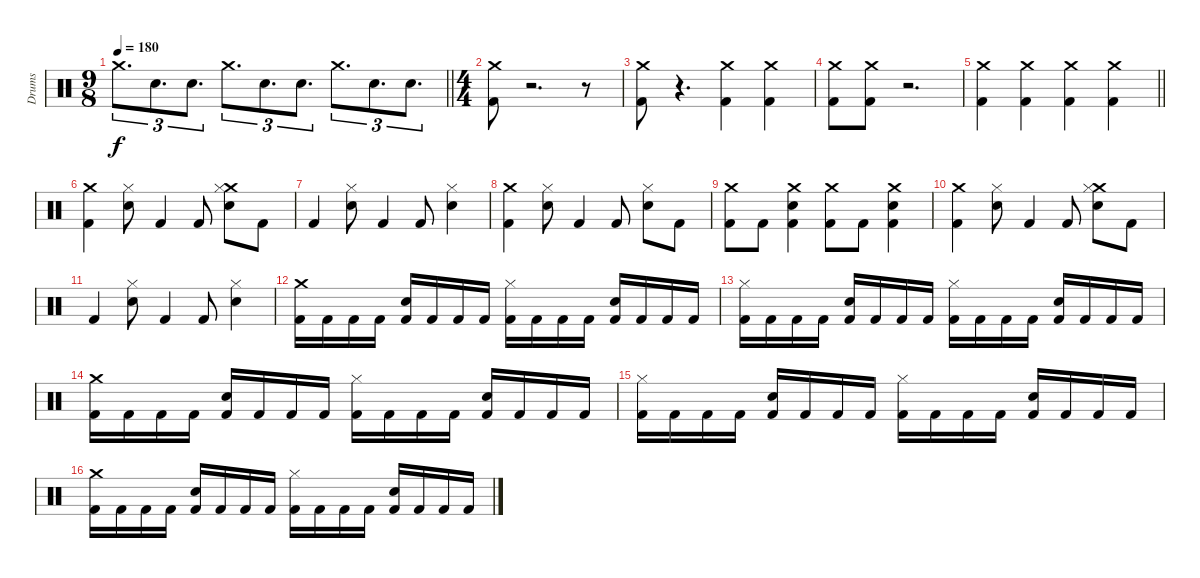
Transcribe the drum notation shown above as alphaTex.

\track ("Drums" "Drums") {instrument percussion}
\staff {score}
\articulation defaults
\ts (9 8)
\tempo 180
\clef neutral
\barLineRight lightlight
\ks c "Crash medium (hit)".8{d tu (3 2) dy f} "Snare (hit) 2".8{d tu (3 2)} "Snare (hit) 2".8{d tu (3 2)} "Crash medium (hit)".8{d tu (3 2)} "Snare (hit) 2".8{d tu (3 2)} "Snare (hit) 2".8{d tu (3 2)} "Crash medium (hit)".8{d tu (3 2)} "Snare (hit) 2".8{d tu (3 2)} "Snare (hit) 2".8{d tu (3 2)}
|
\ts (4 4)
("Crash medium (hit)" "Kick (hit) 2").8 r.2{d} r.8 |
("Crash medium (hit)" "Kick (hit) 2").8 r.4{d} ("Crash medium (hit)" "Kick (hit) 2").4 ("Crash medium (hit)" "Kick (hit) 2").4 |
("Crash medium (hit)" "Kick (hit) 2").8 ("Crash medium (hit)" "Kick (hit) 2").8 r.2{d} |
\barLineRight lightlight
("Crash medium (hit)" "Kick (hit) 2").4 ("Crash medium (hit)" "Kick (hit) 2").4 ("Crash medium (hit)" "Kick (hit) 2").4 ("Crash medium (hit)" "Kick (hit) 2").4 |
("Crash medium (hit)" "Kick (hit) 2").4 ("Hi-Hat (closed)" "Snare (hit) 2").8 "Kick (hit) 2".4 "Kick (hit) 2".8 ("Crash medium (hit)" "Hi-Hat (closed)" "Snare (hit) 2").8 "Kick (hit) 2".8 |
"Kick (hit) 2".4 ("Hi-Hat (closed)" "Snare (hit) 2").8 "Kick (hit) 2".4 "Kick (hit) 2".8 ("Hi-Hat (closed)" "Snare (hit) 2").4 |
("Crash medium (hit)" "Kick (hit) 2").4 ("Hi-Hat (closed)" "Snare (hit) 2").8 "Kick (hit) 2".4 "Kick (hit) 2".8 ("Hi-Hat (closed)" "Snare (hit) 2").8 "Kick (hit) 2".8 |
("Crash medium (hit)" "Kick (hit) 2").8 "Kick (hit) 2".8 ("Crash medium (hit)" "Snare (hit) 2" "Kick (hit) 2").4 ("Crash medium (hit)" "Kick (hit) 2").8 "Kick (hit) 2".8 ("Crash medium (hit)" "Snare (hit) 2" "Kick (hit) 2").4 |
("Crash medium (hit)" "Kick (hit) 2").4 ("Hi-Hat (closed)" "Snare (hit) 2").8 "Kick (hit) 2".4 "Kick (hit) 2".8 ("Crash medium (hit)" "Hi-Hat (closed)" "Snare (hit) 2").8 "Kick (hit) 2".8 |
"Kick (hit) 2".4 ("Hi-Hat (closed)" "Snare (hit) 2").8 "Kick (hit) 2".4 "Kick (hit) 2".8 ("Hi-Hat (closed)" "Snare (hit) 2").4 |
("Crash medium (hit)" "Kick (hit) 2").16 "Kick (hit) 2".16 "Kick (hit) 2".16 "Kick (hit) 2".16 ("Snare (hit) 2" "Kick (hit) 2").16 "Kick (hit) 2".16 "Kick (hit) 2".16 "Kick (hit) 2".16 ("Hi-Hat (closed)" "Kick (hit) 2").16 "Kick (hit) 2".16 "Kick (hit) 2".16 "Kick (hit) 2".16 ("Snare (hit) 2" "Kick (hit) 2").16 "Kick (hit) 2".16 "Kick (hit) 2".16 "Kick (hit) 2".16 |
("Hi-Hat (closed)" "Kick (hit) 2").16 "Kick (hit) 2".16 "Kick (hit) 2".16 "Kick (hit) 2".16 ("Snare (hit) 2" "Kick (hit) 2").16 "Kick (hit) 2".16 "Kick (hit) 2".16 "Kick (hit) 2".16 ("Hi-Hat (closed)" "Kick (hit) 2").16 "Kick (hit) 2".16 "Kick (hit) 2".16 "Kick (hit) 2".16 ("Snare (hit) 2" "Kick (hit) 2").16 "Kick (hit) 2".16 "Kick (hit) 2".16 "Kick (hit) 2".16 |
("Crash medium (hit)" "Kick (hit) 2").16 "Kick (hit) 2".16 "Kick (hit) 2".16 "Kick (hit) 2".16 ("Snare (hit) 2" "Kick (hit) 2").16 "Kick (hit) 2".16 "Kick (hit) 2".16 "Kick (hit) 2".16 ("Hi-Hat (closed)" "Kick (hit) 2").16 "Kick (hit) 2".16 "Kick (hit) 2".16 "Kick (hit) 2".16 ("Snare (hit) 2" "Kick (hit) 2").16 "Kick (hit) 2".16 "Kick (hit) 2".16 "Kick (hit) 2".16 |
("Hi-Hat (closed)" "Kick (hit) 2").16 "Kick (hit) 2".16 "Kick (hit) 2".16 "Kick (hit) 2".16 ("Snare (hit) 2" "Kick (hit) 2").16 "Kick (hit) 2".16 "Kick (hit) 2".16 "Kick (hit) 2".16 ("Hi-Hat (closed)" "Kick (hit) 2").16 "Kick (hit) 2".16 "Kick (hit) 2".16 "Kick (hit) 2".16 ("Snare (hit) 2" "Kick (hit) 2").16 "Kick (hit) 2".16 "Kick (hit) 2".16 "Kick (hit) 2".16 |
("Crash medium (hit)" "Kick (hit) 2").16 "Kick (hit) 2".16 "Kick (hit) 2".16 "Kick (hit) 2".16 ("Snare (hit) 2" "Kick (hit) 2").16 "Kick (hit) 2".16 "Kick (hit) 2".16 "Kick (hit) 2".16 ("Hi-Hat (closed)" "Kick (hit) 2").16 "Kick (hit) 2".16 "Kick (hit) 2".16 "Kick (hit) 2".16 ("Snare (hit) 2" "Kick (hit) 2").16 "Kick (hit) 2".16 "Kick (hit) 2".16 "Kick (hit) 2".16
